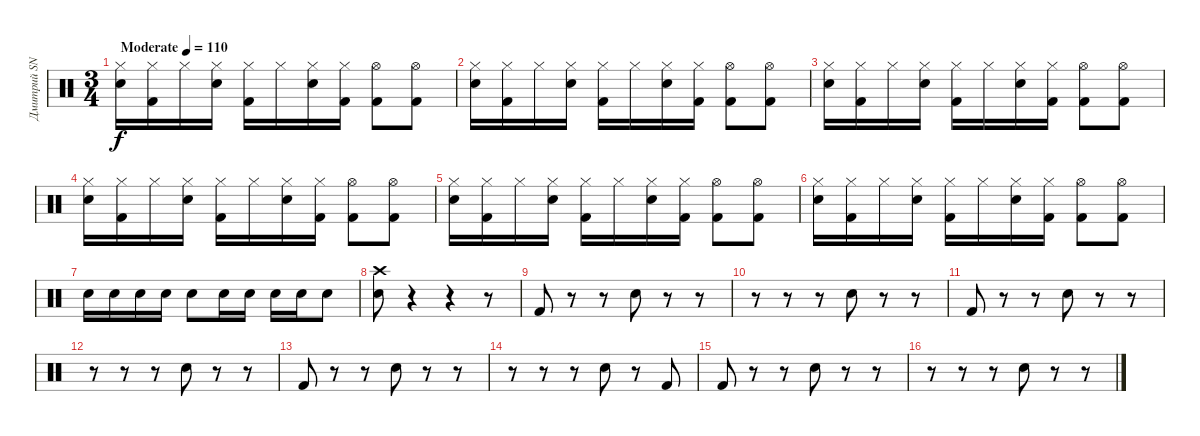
\track ("Дмитрий SNAKE" "Дмитрий SN") {instrument percussion}
\staff {score}
\articulation defaults
\ts (3 4)
\tempo (110 "Moderate")
\clef neutral
\ks c
("Hi-Hat (closed)" "Snare (hit) 2").16{dy f} ("Hi-Hat (closed)" "Kick (hit) 2").16 "Hi-Hat (closed)".16 ("Hi-Hat (closed)" "Snare (hit) 2").16 ("Hi-Hat (closed)" "Kick (hit) 2").16 "Hi-Hat (closed)".16 ("Hi-Hat (closed)" "Snare (hit) 2").16 ("Hi-Hat (closed)" "Kick (hit) 2").16 ("Hi-Hat (open)" "Kick (hit) 2").8 ("Hi-Hat (open)" "Kick (hit) 2").8 |
("Hi-Hat (closed)" "Snare (hit) 2").16 ("Hi-Hat (closed)" "Kick (hit) 2").16 "Hi-Hat (closed)".16 ("Hi-Hat (closed)" "Snare (hit) 2").16 ("Hi-Hat (closed)" "Kick (hit) 2").16 "Hi-Hat (closed)".16 ("Hi-Hat (closed)" "Snare (hit) 2").16 ("Hi-Hat (closed)" "Kick (hit) 2").16 ("Hi-Hat (open)" "Kick (hit) 2").8 ("Hi-Hat (open)" "Kick (hit) 2").8 |
("Hi-Hat (closed)" "Snare (hit) 2").16 ("Hi-Hat (closed)" "Kick (hit) 2").16 "Hi-Hat (closed)".16 ("Hi-Hat (closed)" "Snare (hit) 2").16 ("Hi-Hat (closed)" "Kick (hit) 2").16 "Hi-Hat (closed)".16 ("Hi-Hat (closed)" "Snare (hit) 2").16 ("Hi-Hat (closed)" "Kick (hit) 2").16 ("Hi-Hat (open)" "Kick (hit) 2").8 ("Hi-Hat (open)" "Kick (hit) 2").8 |
("Hi-Hat (closed)" "Snare (hit) 2").16 ("Hi-Hat (closed)" "Kick (hit) 2").16 "Hi-Hat (closed)".16 ("Hi-Hat (closed)" "Snare (hit) 2").16 ("Hi-Hat (closed)" "Kick (hit) 2").16 "Hi-Hat (closed)".16 ("Hi-Hat (closed)" "Snare (hit) 2").16 ("Hi-Hat (closed)" "Kick (hit) 2").16 ("Hi-Hat (open)" "Kick (hit) 2").8 ("Hi-Hat (open)" "Kick (hit) 2").8 |
("Hi-Hat (closed)" "Snare (hit) 2").16 ("Hi-Hat (closed)" "Kick (hit) 2").16 "Hi-Hat (closed)".16 ("Hi-Hat (closed)" "Snare (hit) 2").16 ("Hi-Hat (closed)" "Kick (hit) 2").16 "Hi-Hat (closed)".16 ("Hi-Hat (closed)" "Snare (hit) 2").16 ("Hi-Hat (closed)" "Kick (hit) 2").16 ("Hi-Hat (open)" "Kick (hit) 2").8 ("Hi-Hat (open)" "Kick (hit) 2").8 |
("Hi-Hat (closed)" "Snare (hit) 2").16 ("Hi-Hat (closed)" "Kick (hit) 2").16 "Hi-Hat (closed)".16 ("Hi-Hat (closed)" "Snare (hit) 2").16 ("Hi-Hat (closed)" "Kick (hit) 2").16 "Hi-Hat (closed)".16 ("Hi-Hat (closed)" "Snare (hit) 2").16 ("Hi-Hat (closed)" "Kick (hit) 2").16 ("Hi-Hat (open)" "Kick (hit) 2").8 ("Hi-Hat (open)" "Kick (hit) 2").8 |
"Snare (hit) 2".16 "Snare (hit) 2".16 "Snare (hit) 2".16 "Snare (hit) 2".16 "Snare (hit) 2".8 "Snare (hit) 2".16 "Snare (hit) 2".16 "Snare (hit) 2".16 "Snare (hit) 2".16 "Snare (hit) 2".8 |
("Crash high (hit)" "Snare (hit) 2").8 r.4 r.4 r.8 |
"Kick (hit) 2".8 r.8 r.8 "Hand Clap (hit)".8 r.8 r.8 |
r.8 r.8 r.8 "Hand Clap (hit)".8 r.8 r.8 |
"Kick (hit) 2".8 r.8 r.8 "Hand Clap (hit)".8 r.8 r.8 |
r.8 r.8 r.8 "Hand Clap (hit)".8 r.8 r.8 |
"Kick (hit) 2".8 r.8 r.8 "Hand Clap (hit)".8 r.8 r.8 |
r.8 r.8 r.8 "Hand Clap (hit)".8 r.8 "Kick (hit) 2".8 |
"Kick (hit) 2".8 r.8 r.8 "Hand Clap (hit)".8 r.8 r.8 |
r.8 r.8 r.8 "Hand Clap (hit)".8 r.8 r.8
